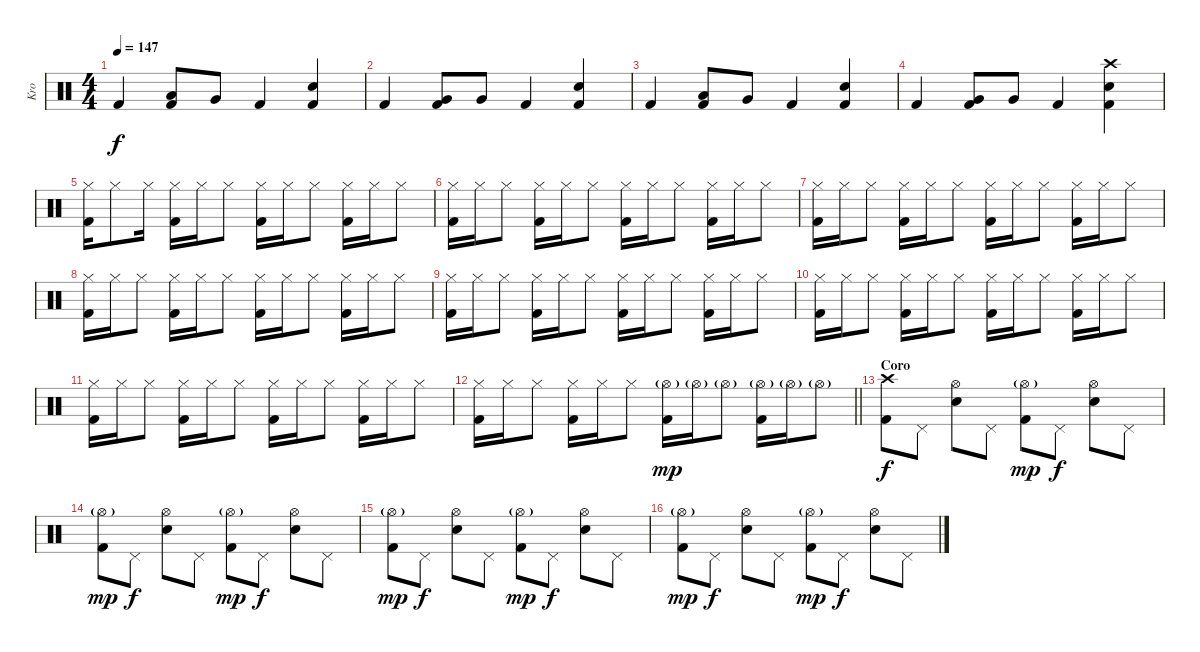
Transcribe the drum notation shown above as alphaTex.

\track ("Kro" "Kro") {instrument percussion}
\staff {score}
\articulation defaults
\ts (4 4)
\tempo 147
\clef neutral
\ks c "Kick (hit) 2".4{dy f}
("Low Tom (hit)" "Kick (hit) 2").8 "Very Low Tom (hit)".8 "Kick (hit) 2".4 ("Electric Snare (hit)" "Kick (hit) 2").4 |
"Kick (hit) 2".4 ("Very Low Tom (hit)" "Kick (hit) 2").8 "Very Low Tom (hit)".8 "Kick (hit) 2".4 ("Electric Snare (hit)" "Kick (hit) 2").4 |
"Kick (hit) 2".4 ("Low Tom (hit)" "Kick (hit) 2").8 "Very Low Tom (hit)".8 "Kick (hit) 2".4 ("Electric Snare (hit)" "Kick (hit) 2").4 |
"Kick (hit) 2".4 ("Very Low Tom (hit)" "Kick (hit) 2").8 "Very Low Tom (hit)".8 "Kick (hit) 2".4 ("Crash high (hit)" "Electric Snare (hit)" "Kick (hit) 2").4 |
("Hi-Hat (closed)" "Kick (hit) 2").16 "Hi-Hat (closed)".8 "Hi-Hat (closed)".16 ("Hi-Hat (closed)" "Kick (hit) 2").16 "Hi-Hat (closed)".16 "Hi-Hat (closed)".8 ("Hi-Hat (closed)" "Kick (hit) 2").16 "Hi-Hat (closed)".16 "Hi-Hat (closed)".8 ("Hi-Hat (closed)" "Kick (hit) 2").16 "Hi-Hat (closed)".16 "Hi-Hat (closed)".8 |
("Hi-Hat (closed)" "Kick (hit) 2").16 "Hi-Hat (closed)".16 "Hi-Hat (closed)".8 ("Hi-Hat (closed)" "Kick (hit) 2").16 "Hi-Hat (closed)".16 "Hi-Hat (closed)".8 ("Hi-Hat (closed)" "Kick (hit) 2").16 "Hi-Hat (closed)".16 "Hi-Hat (closed)".8 ("Hi-Hat (closed)" "Kick (hit) 2").16 "Hi-Hat (closed)".16 "Hi-Hat (closed)".8 |
("Hi-Hat (closed)" "Kick (hit) 2").16 "Hi-Hat (closed)".16 "Hi-Hat (closed)".8 ("Hi-Hat (closed)" "Kick (hit) 2").16 "Hi-Hat (closed)".16 "Hi-Hat (closed)".8 ("Hi-Hat (closed)" "Kick (hit) 2").16 "Hi-Hat (closed)".16 "Hi-Hat (closed)".8 ("Hi-Hat (closed)" "Kick (hit) 2").16 "Hi-Hat (closed)".16 "Hi-Hat (closed)".8 |
("Hi-Hat (closed)" "Kick (hit) 2").16 "Hi-Hat (closed)".16 "Hi-Hat (closed)".8 ("Hi-Hat (closed)" "Kick (hit) 2").16 "Hi-Hat (closed)".16 "Hi-Hat (closed)".8 ("Hi-Hat (closed)" "Kick (hit) 2").16 "Hi-Hat (closed)".16 "Hi-Hat (closed)".8 ("Hi-Hat (closed)" "Kick (hit) 2").16 "Hi-Hat (closed)".16 "Hi-Hat (closed)".8 |
("Hi-Hat (closed)" "Kick (hit) 2").16 "Hi-Hat (closed)".16 "Hi-Hat (closed)".8 ("Hi-Hat (closed)" "Kick (hit) 2").16 "Hi-Hat (closed)".16 "Hi-Hat (closed)".8 ("Hi-Hat (closed)" "Kick (hit) 2").16 "Hi-Hat (closed)".16 "Hi-Hat (closed)".8 ("Hi-Hat (closed)" "Kick (hit) 2").16 "Hi-Hat (closed)".16 "Hi-Hat (closed)".8 |
("Hi-Hat (closed)" "Kick (hit) 2").16 "Hi-Hat (closed)".16 "Hi-Hat (closed)".8 ("Hi-Hat (closed)" "Kick (hit) 2").16 "Hi-Hat (closed)".16 "Hi-Hat (closed)".8 ("Hi-Hat (closed)" "Kick (hit) 2").16 "Hi-Hat (closed)".16 "Hi-Hat (closed)".8 ("Hi-Hat (closed)" "Kick (hit) 2").16 "Hi-Hat (closed)".16 "Hi-Hat (closed)".8 |
("Hi-Hat (closed)" "Kick (hit) 2").16 "Hi-Hat (closed)".16 "Hi-Hat (closed)".8 ("Hi-Hat (closed)" "Kick (hit) 2").16 "Hi-Hat (closed)".16 "Hi-Hat (closed)".8 ("Hi-Hat (closed)" "Kick (hit) 2").16 "Hi-Hat (closed)".16 "Hi-Hat (closed)".8 ("Hi-Hat (closed)" "Kick (hit) 2").16 "Hi-Hat (closed)".16 "Hi-Hat (closed)".8 |
\barLineRight lightlight
("Hi-Hat (closed)" "Kick (hit) 2").16 "Hi-Hat (closed)".16 "Hi-Hat (closed)".8 ("Hi-Hat (closed)" "Kick (hit) 2").16 "Hi-Hat (closed)".16 "Hi-Hat (closed)".8 ("Hi-Hat (open)"{g} "Kick (hit) 2").16{dy mp} "Hi-Hat (open)"{g}.16 "Hi-Hat (open)"{g}.8 ("Hi-Hat (open)"{g} "Kick (hit) 2").16 "Hi-Hat (open)"{g}.16 "Hi-Hat (open)"{g}.8 |
\section ("" "Coro")
("Crash high (hit)" "Kick (hit) 2").8{dy f} "Pedal Hi-Hat (hit)".8 ("Hi-Hat (open)" "Electric Snare (hit)").8 "Pedal Hi-Hat (hit)".8 ("Hi-Hat (open)"{g} "Kick (hit) 2").8{dy mp} "Pedal Hi-Hat (hit)".8{dy f} ("Hi-Hat (open)" "Electric Snare (hit)").8 "Pedal Hi-Hat (hit)".8 |
("Hi-Hat (open)"{g} "Kick (hit) 2").8{dy mp} "Pedal Hi-Hat (hit)".8{dy f} ("Hi-Hat (open)" "Electric Snare (hit)").8 "Pedal Hi-Hat (hit)".8 ("Hi-Hat (open)"{g} "Kick (hit) 2").8{dy mp} "Pedal Hi-Hat (hit)".8{dy f} ("Hi-Hat (open)" "Electric Snare (hit)").8 "Pedal Hi-Hat (hit)".8 |
("Hi-Hat (open)"{g} "Kick (hit) 2").8{dy mp} "Pedal Hi-Hat (hit)".8{dy f} ("Hi-Hat (open)" "Electric Snare (hit)").8 "Pedal Hi-Hat (hit)".8 ("Hi-Hat (open)"{g} "Kick (hit) 2").8{dy mp} "Pedal Hi-Hat (hit)".8{dy f} ("Hi-Hat (open)" "Electric Snare (hit)").8 "Pedal Hi-Hat (hit)".8 |
("Hi-Hat (open)"{g} "Kick (hit) 2").8{dy mp} "Pedal Hi-Hat (hit)".8{dy f} ("Hi-Hat (open)" "Electric Snare (hit)").8 "Pedal Hi-Hat (hit)".8 ("Hi-Hat (open)"{g} "Kick (hit) 2").8{dy mp} "Pedal Hi-Hat (hit)".8{dy f} ("Hi-Hat (open)" "Electric Snare (hit)").8 "Pedal Hi-Hat (hit)".8
